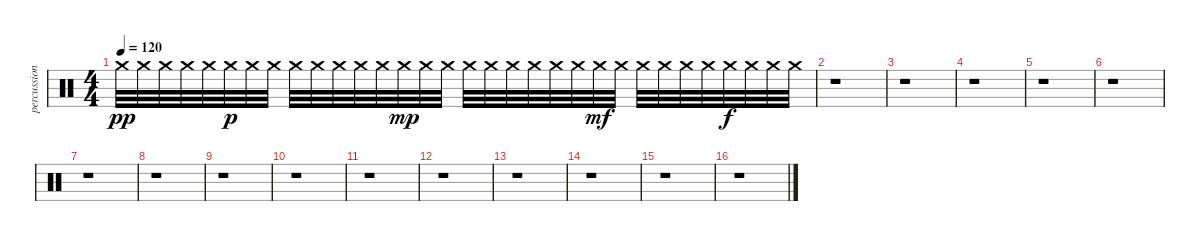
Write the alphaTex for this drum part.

\track ("percussion" "percussion") {instrument percussion}
\staff {score}
\articulation defaults
\ts (4 4)
\tempo 120
\clef neutral
\ks c "Crash medium (hit)".32{dy pp} "Crash medium (hit)".32 "Crash medium (hit)".32 "Crash medium (hit)".32 "Crash medium (hit)".32 "Crash medium (hit)".32{dy p} "Crash medium (hit)".32 "Crash medium (hit)".32 "Crash medium (hit)".32 "Crash medium (hit)".32 "Crash medium (hit)".32 "Crash medium (hit)".32 "Crash medium (hit)".32 "Crash medium (hit)".32{dy mp} "Crash medium (hit)".32 "Crash medium (hit)".32 "Crash medium (hit)".32 "Crash medium (hit)".32 "Crash medium (hit)".32 "Crash medium (hit)".32 "Crash medium (hit)".32 "Crash medium (hit)".32 "Crash medium (hit)".32{dy mf} "Crash medium (hit)".32 "Crash medium (hit)".32 "Crash medium (hit)".32 "Crash medium (hit)".32 "Crash medium (hit)".32 "Crash medium (hit)".32{dy f} "Crash medium (hit)".32 "Crash medium (hit)".32 "Crash medium (hit)".32
|
r.1 |
r.1 |
r.1 |
r.1 |
r.1 |
r.1 |
r.1 |
r.1 |
r.1 |
r.1 |
r.1 |
r.1 |
r.1 |
r.1 |
r.1
